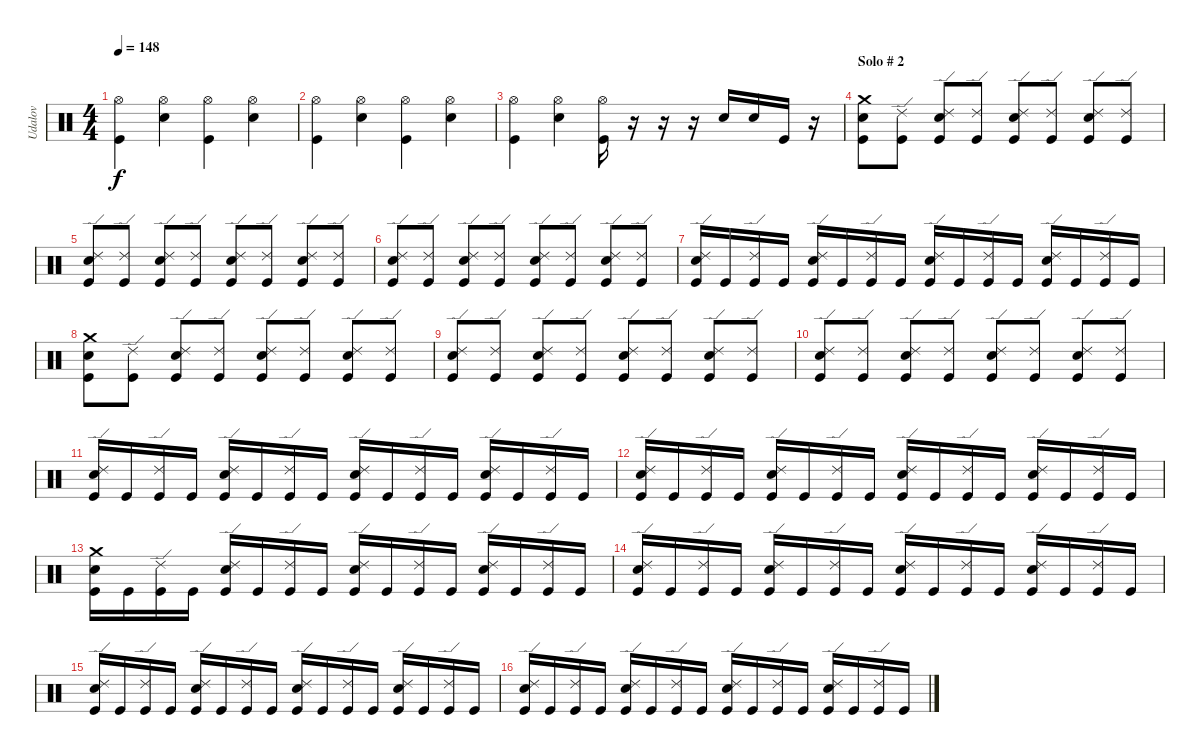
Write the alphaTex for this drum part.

\track ("Udalov" "Udalov") {instrument percussion}
\staff {score}
\articulation defaults
\ts (4 4)
\tempo 148
\clef neutral
\ks c
("Kick (hit)" "Hi-Hat (open)").4{dy f} ("Electric Snare (hit)" "Hi-Hat (open)").4 ("Kick (hit)" "Hi-Hat (open)").4 ("Electric Snare (hit)" "Hi-Hat (open)").4 |
("Kick (hit)" "Hi-Hat (open)").4 ("Electric Snare (hit)" "Hi-Hat (open)").4 ("Kick (hit)" "Hi-Hat (open)").4 ("Electric Snare (hit)" "Hi-Hat (open)").4 |
("Kick (hit)" "Hi-Hat (open)").4 ("Electric Snare (hit)" "Hi-Hat (open)").4 ("Kick (hit)" "Hi-Hat (open)").16 r.16 r.16 r.16 "Electric Snare (hit)".16 "Electric Snare (hit)".16 "Kick (hit)".16 r.16 |
\section ("" "Solo # 2")
("Electric Snare (hit)" "Kick (hit)" "Crash medium (hit)").8 ("Kick (hit)" "Ride (edge) 2").8 ("Electric Snare (hit)" "Kick (hit)" "Ride (edge) 2").8 ("Kick (hit)" "Ride (edge) 2").8 ("Electric Snare (hit)" "Kick (hit)" "Ride (edge) 2").8 ("Kick (hit)" "Ride (edge) 2").8 ("Electric Snare (hit)" "Kick (hit)" "Ride (edge) 2").8 ("Kick (hit)" "Ride (edge) 2").8 |
("Electric Snare (hit)" "Kick (hit)" "Ride (edge) 2").8 ("Kick (hit)" "Ride (edge) 2").8 ("Electric Snare (hit)" "Kick (hit)" "Ride (edge) 2").8 ("Kick (hit)" "Ride (edge) 2").8 ("Electric Snare (hit)" "Kick (hit)" "Ride (edge) 2").8 ("Kick (hit)" "Ride (edge) 2").8 ("Electric Snare (hit)" "Kick (hit)" "Ride (edge) 2").8 ("Kick (hit)" "Ride (edge) 2").8 |
("Electric Snare (hit)" "Kick (hit)" "Ride (edge) 2").8 ("Kick (hit)" "Ride (edge) 2").8 ("Electric Snare (hit)" "Kick (hit)" "Ride (edge) 2").8 ("Kick (hit)" "Ride (edge) 2").8 ("Electric Snare (hit)" "Kick (hit)" "Ride (edge) 2").8 ("Kick (hit)" "Ride (edge) 2").8 ("Electric Snare (hit)" "Kick (hit)" "Ride (edge) 2").8 ("Kick (hit)" "Ride (edge) 2").8 |
("Electric Snare (hit)" "Kick (hit)" "Ride (edge) 2").16 "Kick (hit)".16 ("Kick (hit)" "Ride (edge) 2").16 "Kick (hit)".16 ("Electric Snare (hit)" "Kick (hit)" "Ride (edge) 2").16 "Kick (hit)".16 ("Kick (hit)" "Ride (edge) 2").16 "Kick (hit)".16 ("Electric Snare (hit)" "Kick (hit)" "Ride (edge) 2").16 "Kick (hit)".16 ("Kick (hit)" "Ride (edge) 2").16 "Kick (hit)".16 ("Electric Snare (hit)" "Kick (hit)" "Ride (edge) 2").16 "Kick (hit)".16 ("Kick (hit)" "Ride (edge) 2").16 "Kick (hit)".16 |
("Electric Snare (hit)" "Kick (hit)" "Crash medium (hit)").8 ("Kick (hit)" "Ride (edge) 2").8 ("Electric Snare (hit)" "Kick (hit)" "Ride (edge) 2").8 ("Kick (hit)" "Ride (edge) 2").8 ("Electric Snare (hit)" "Kick (hit)" "Ride (edge) 2").8 ("Kick (hit)" "Ride (edge) 2").8 ("Electric Snare (hit)" "Kick (hit)" "Ride (edge) 2").8 ("Kick (hit)" "Ride (edge) 2").8 |
("Electric Snare (hit)" "Kick (hit)" "Ride (edge) 2").8 ("Kick (hit)" "Ride (edge) 2").8 ("Electric Snare (hit)" "Kick (hit)" "Ride (edge) 2").8 ("Kick (hit)" "Ride (edge) 2").8 ("Electric Snare (hit)" "Kick (hit)" "Ride (edge) 2").8 ("Kick (hit)" "Ride (edge) 2").8 ("Electric Snare (hit)" "Kick (hit)" "Ride (edge) 2").8 ("Kick (hit)" "Ride (edge) 2").8 |
("Electric Snare (hit)" "Kick (hit)" "Ride (edge) 2").8 ("Kick (hit)" "Ride (edge) 2").8 ("Electric Snare (hit)" "Kick (hit)" "Ride (edge) 2").8 ("Kick (hit)" "Ride (edge) 2").8 ("Electric Snare (hit)" "Kick (hit)" "Ride (edge) 2").8 ("Kick (hit)" "Ride (edge) 2").8 ("Electric Snare (hit)" "Kick (hit)" "Ride (edge) 2").8 ("Kick (hit)" "Ride (edge) 2").8 |
("Electric Snare (hit)" "Kick (hit)" "Ride (edge) 2").16 "Kick (hit)".16 ("Kick (hit)" "Ride (edge) 2").16 "Kick (hit)".16 ("Electric Snare (hit)" "Kick (hit)" "Ride (edge) 2").16 "Kick (hit)".16 ("Kick (hit)" "Ride (edge) 2").16 "Kick (hit)".16 ("Electric Snare (hit)" "Kick (hit)" "Ride (edge) 2").16 "Kick (hit)".16 ("Kick (hit)" "Ride (edge) 2").16 "Kick (hit)".16 ("Electric Snare (hit)" "Kick (hit)" "Ride (edge) 2").16 "Kick (hit)".16 ("Kick (hit)" "Ride (edge) 2").16 "Kick (hit)".16 |
("Electric Snare (hit)" "Kick (hit)" "Ride (edge) 2").16 "Kick (hit)".16 ("Kick (hit)" "Ride (edge) 2").16 "Kick (hit)".16 ("Electric Snare (hit)" "Kick (hit)" "Ride (edge) 2").16 "Kick (hit)".16 ("Kick (hit)" "Ride (edge) 2").16 "Kick (hit)".16 ("Electric Snare (hit)" "Kick (hit)" "Ride (edge) 2").16 "Kick (hit)".16 ("Kick (hit)" "Ride (edge) 2").16 "Kick (hit)".16 ("Electric Snare (hit)" "Kick (hit)" "Ride (edge) 2").16 "Kick (hit)".16 ("Kick (hit)" "Ride (edge) 2").16 "Kick (hit)".16 |
("Electric Snare (hit)" "Kick (hit)" "Crash medium (hit)").16 "Kick (hit)".16 ("Kick (hit)" "Ride (edge) 2").16 "Kick (hit)".16 ("Electric Snare (hit)" "Kick (hit)" "Ride (edge) 2").16 "Kick (hit)".16 ("Kick (hit)" "Ride (edge) 2").16 "Kick (hit)".16 ("Electric Snare (hit)" "Kick (hit)" "Ride (edge) 2").16 "Kick (hit)".16 ("Kick (hit)" "Ride (edge) 2").16 "Kick (hit)".16 ("Electric Snare (hit)" "Kick (hit)" "Ride (edge) 2").16 "Kick (hit)".16 ("Kick (hit)" "Ride (edge) 2").16 "Kick (hit)".16 |
("Electric Snare (hit)" "Kick (hit)" "Ride (edge) 2").16 "Kick (hit)".16 ("Kick (hit)" "Ride (edge) 2").16 "Kick (hit)".16 ("Electric Snare (hit)" "Kick (hit)" "Ride (edge) 2").16 "Kick (hit)".16 ("Kick (hit)" "Ride (edge) 2").16 "Kick (hit)".16 ("Electric Snare (hit)" "Kick (hit)" "Ride (edge) 2").16 "Kick (hit)".16 ("Kick (hit)" "Ride (edge) 2").16 "Kick (hit)".16 ("Electric Snare (hit)" "Kick (hit)" "Ride (edge) 2").16 "Kick (hit)".16 ("Kick (hit)" "Ride (edge) 2").16 "Kick (hit)".16 |
("Electric Snare (hit)" "Kick (hit)" "Ride (edge) 2").16 "Kick (hit)".16 ("Kick (hit)" "Ride (edge) 2").16 "Kick (hit)".16 ("Electric Snare (hit)" "Kick (hit)" "Ride (edge) 2").16 "Kick (hit)".16 ("Kick (hit)" "Ride (edge) 2").16 "Kick (hit)".16 ("Electric Snare (hit)" "Kick (hit)" "Ride (edge) 2").16 "Kick (hit)".16 ("Kick (hit)" "Ride (edge) 2").16 "Kick (hit)".16 ("Electric Snare (hit)" "Kick (hit)" "Ride (edge) 2").16 "Kick (hit)".16 ("Kick (hit)" "Ride (edge) 2").16 "Kick (hit)".16 |
("Electric Snare (hit)" "Kick (hit)" "Ride (edge) 2").16 "Kick (hit)".16 ("Kick (hit)" "Ride (edge) 2").16 "Kick (hit)".16 ("Electric Snare (hit)" "Kick (hit)" "Ride (edge) 2").16 "Kick (hit)".16 ("Kick (hit)" "Ride (edge) 2").16 "Kick (hit)".16 ("Electric Snare (hit)" "Kick (hit)" "Ride (edge) 2").16 "Kick (hit)".16 ("Kick (hit)" "Ride (edge) 2").16 "Kick (hit)".16 ("Electric Snare (hit)" "Kick (hit)" "Ride (edge) 2").16 "Kick (hit)".16 ("Kick (hit)" "Ride (edge) 2").16 "Kick (hit)".16
